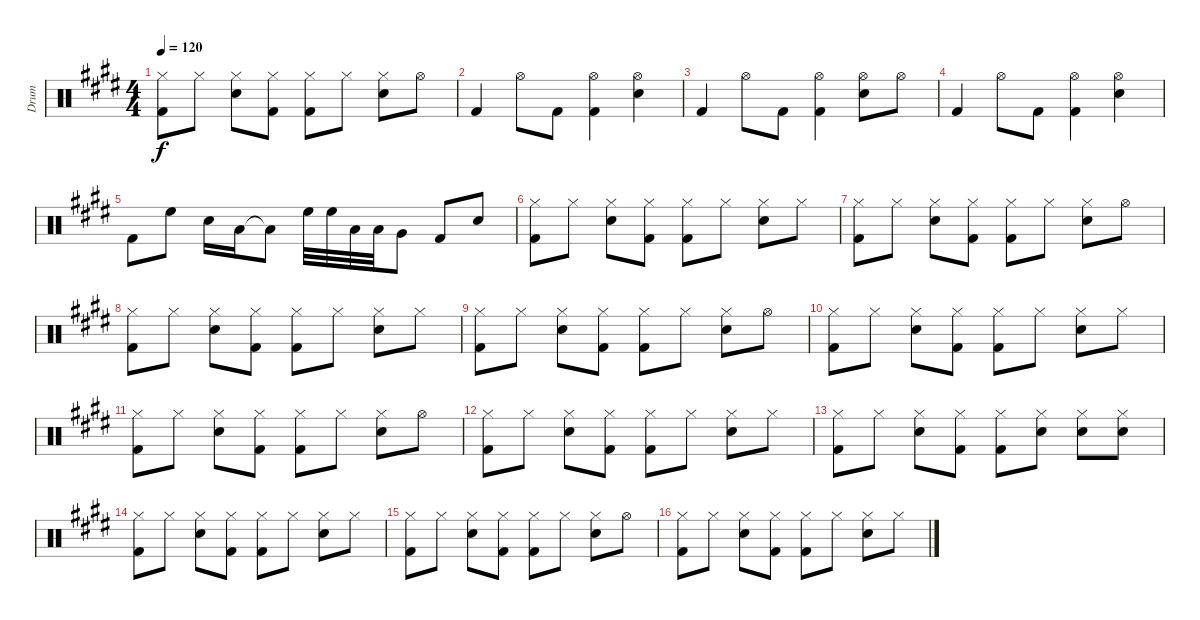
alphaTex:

\track ("Drum" "Drum") {instrument percussion}
\staff {score}
\articulation defaults
\ts (4 4)
\tempo 120
\clef neutral
\ks e
("Hi-Hat (closed)" "Kick (hit) 2").8{dy f} "Hi-Hat (closed)".8 ("Hi-Hat (closed)" "Snare (hit) 2").8 ("Hi-Hat (closed)" "Kick (hit) 2").8 ("Hi-Hat (closed)" "Kick (hit) 2").8 "Hi-Hat (closed)".8 ("Hi-Hat (closed)" "Snare (hit) 2").8 "Hi-Hat (open)".8 |
"Kick (hit) 2".4 "Hi-Hat (open)".8 "Kick (hit) 2".8 ("Hi-Hat (open)" "Kick (hit) 2").4 ("Hi-Hat (open)" "Snare (hit) 2").4 |
"Kick (hit) 2".4 "Hi-Hat (open)".8 "Kick (hit) 2".8 ("Hi-Hat (open)" "Kick (hit) 2").4 ("Hi-Hat (open)" "Snare (hit) 2").8 "Hi-Hat (open)".8 |
"Kick (hit) 2".4 "Hi-Hat (open)".8 "Kick (hit) 2".8 ("Hi-Hat (open)" "Kick (hit) 2").4 ("Hi-Hat (open)" "Snare (hit) 2").4 |
"Kick (hit) 2".8 "High Floor Tom (hit)".8 "Snare (hit) 2".16 "Low Tom (hit)".16 "Low Tom (hit)"{t}.8 "High Floor Tom (hit)".32 "High Floor Tom (hit)".32 "Low Tom (hit)".32 "Low Tom (hit)".32 "Very Low Tom (hit)".8 "Kick (hit) 2".8 "Snare (hit) 2".8 |
("Hi-Hat (closed)" "Kick (hit) 2").8 "Hi-Hat (closed)".8 ("Hi-Hat (closed)" "Snare (hit) 2").8 ("Hi-Hat (closed)" "Kick (hit) 2").8 ("Hi-Hat (closed)" "Kick (hit) 2").8 "Hi-Hat (closed)".8 ("Hi-Hat (closed)" "Snare (hit) 2").8 "Hi-Hat (closed)".8 |
("Hi-Hat (closed)" "Kick (hit) 2").8 "Hi-Hat (closed)".8 ("Hi-Hat (closed)" "Snare (hit) 2").8 ("Hi-Hat (closed)" "Kick (hit) 2").8 ("Hi-Hat (closed)" "Kick (hit) 2").8 "Hi-Hat (closed)".8 ("Hi-Hat (closed)" "Snare (hit) 2").8 "Hi-Hat (open)".8 |
("Hi-Hat (closed)" "Kick (hit) 2").8 "Hi-Hat (closed)".8 ("Hi-Hat (closed)" "Snare (hit) 2").8 ("Hi-Hat (closed)" "Kick (hit) 2").8 ("Hi-Hat (closed)" "Kick (hit) 2").8 "Hi-Hat (closed)".8 ("Hi-Hat (closed)" "Snare (hit) 2").8 "Hi-Hat (closed)".8 |
("Hi-Hat (closed)" "Kick (hit) 2").8 "Hi-Hat (closed)".8 ("Hi-Hat (closed)" "Snare (hit) 2").8 ("Hi-Hat (closed)" "Kick (hit) 2").8 ("Hi-Hat (closed)" "Kick (hit) 2").8 "Hi-Hat (closed)".8 ("Hi-Hat (closed)" "Snare (hit) 2").8 "Hi-Hat (open)".8 |
("Hi-Hat (closed)" "Kick (hit) 2").8 "Hi-Hat (closed)".8 ("Hi-Hat (closed)" "Snare (hit) 2").8 ("Hi-Hat (closed)" "Kick (hit) 2").8 ("Hi-Hat (closed)" "Kick (hit) 2").8 "Hi-Hat (closed)".8 ("Hi-Hat (closed)" "Snare (hit) 2").8 "Hi-Hat (closed)".8 |
("Hi-Hat (closed)" "Kick (hit) 2").8 "Hi-Hat (closed)".8 ("Hi-Hat (closed)" "Snare (hit) 2").8 ("Hi-Hat (closed)" "Kick (hit) 2").8 ("Hi-Hat (closed)" "Kick (hit) 2").8 "Hi-Hat (closed)".8 ("Hi-Hat (closed)" "Snare (hit) 2").8 "Hi-Hat (open)".8 |
("Hi-Hat (closed)" "Kick (hit) 2").8 "Hi-Hat (closed)".8 ("Hi-Hat (closed)" "Snare (hit) 2").8 ("Hi-Hat (closed)" "Kick (hit) 2").8 ("Hi-Hat (closed)" "Kick (hit) 2").8 "Hi-Hat (closed)".8 ("Hi-Hat (closed)" "Snare (hit) 2").8 "Hi-Hat (closed)".8 |
("Hi-Hat (closed)" "Kick (hit) 2").8 "Hi-Hat (closed)".8 ("Hi-Hat (closed)" "Snare (hit) 2").8 ("Hi-Hat (closed)" "Kick (hit) 2").8 ("Hi-Hat (closed)" "Kick (hit) 2").8 ("Hi-Hat (closed)" "Snare (hit) 2").8 ("Hi-Hat (closed)" "Snare (hit) 2").8 ("Hi-Hat (closed)" "Snare (hit) 2").8 |
("Hi-Hat (closed)" "Kick (hit) 2").8 "Hi-Hat (closed)".8 ("Hi-Hat (closed)" "Snare (hit) 2").8 ("Hi-Hat (closed)" "Kick (hit) 2").8 ("Hi-Hat (closed)" "Kick (hit) 2").8 "Hi-Hat (closed)".8 ("Hi-Hat (closed)" "Snare (hit) 2").8 "Hi-Hat (closed)".8 |
("Hi-Hat (closed)" "Kick (hit) 2").8 "Hi-Hat (closed)".8 ("Hi-Hat (closed)" "Snare (hit) 2").8 ("Hi-Hat (closed)" "Kick (hit) 2").8 ("Hi-Hat (closed)" "Kick (hit) 2").8 "Hi-Hat (closed)".8 ("Hi-Hat (closed)" "Snare (hit) 2").8 "Hi-Hat (open)".8 |
("Hi-Hat (closed)" "Kick (hit) 2").8 "Hi-Hat (closed)".8 ("Hi-Hat (closed)" "Snare (hit) 2").8 ("Hi-Hat (closed)" "Kick (hit) 2").8 ("Hi-Hat (closed)" "Kick (hit) 2").8 "Hi-Hat (closed)".8 ("Hi-Hat (closed)" "Snare (hit) 2").8 "Hi-Hat (closed)".8
